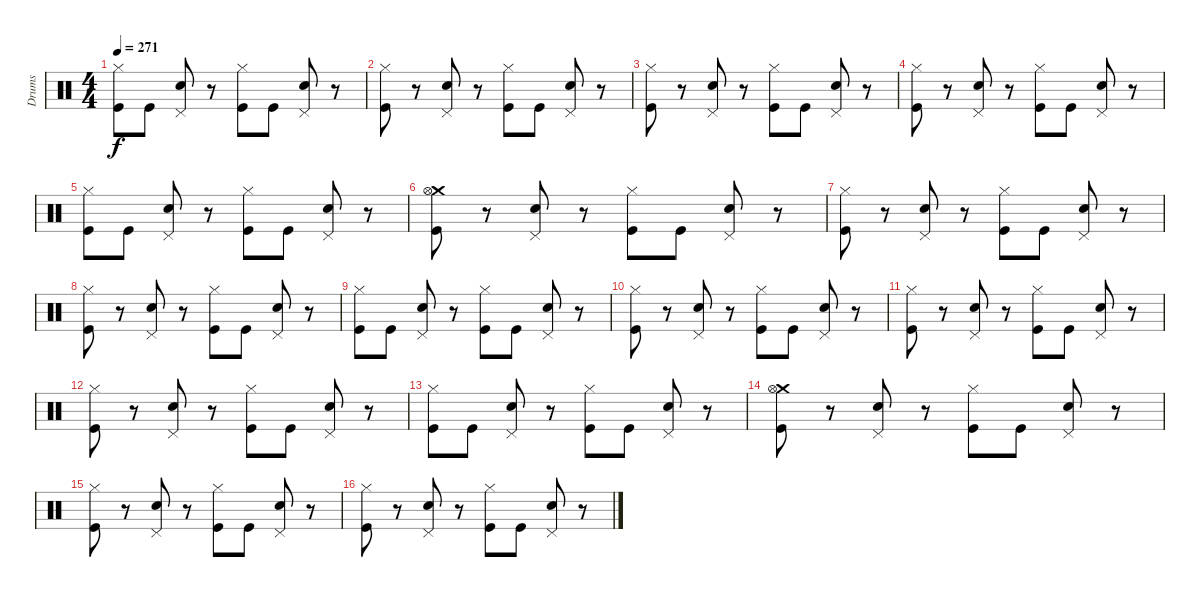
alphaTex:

\track ("Drums" "Drums") {instrument percussion}
\staff {score}
\articulation defaults
\ts (4 4)
\tempo 271
\clef neutral
\ks c
("Hi-Hat (closed)" "Kick (hit)").8{dy f} "Kick (hit)".8 ("Pedal Hi-Hat (hit)" "Electric Snare (hit)").8 r.8 ("Hi-Hat (closed)" "Kick (hit)").8 "Kick (hit)".8 ("Pedal Hi-Hat (hit)" "Electric Snare (hit)").8 r.8 |
("Hi-Hat (closed)" "Kick (hit)").8 r.8 ("Pedal Hi-Hat (hit)" "Electric Snare (hit)").8 r.8 ("Hi-Hat (closed)" "Kick (hit)").8 "Kick (hit)".8 ("Pedal Hi-Hat (hit)" "Electric Snare (hit)").8 r.8 |
("Hi-Hat (closed)" "Kick (hit)").8 r.8 ("Pedal Hi-Hat (hit)" "Electric Snare (hit)").8 r.8 ("Hi-Hat (closed)" "Kick (hit)").8 "Kick (hit)".8 ("Pedal Hi-Hat (hit)" "Electric Snare (hit)").8 r.8 |
("Hi-Hat (closed)" "Kick (hit)").8 r.8 ("Pedal Hi-Hat (hit)" "Electric Snare (hit)").8 r.8 ("Hi-Hat (closed)" "Kick (hit)").8 "Kick (hit)".8 ("Pedal Hi-Hat (hit)" "Electric Snare (hit)").8 r.8 |
("Hi-Hat (closed)" "Kick (hit)").8 "Kick (hit)".8 ("Pedal Hi-Hat (hit)" "Electric Snare (hit)").8 r.8 ("Hi-Hat (closed)" "Kick (hit)").8 "Kick (hit)".8 ("Pedal Hi-Hat (hit)" "Electric Snare (hit)").8 r.8 |
("Crash medium (hit)" "Hi-Hat (open)" "Kick (hit)").8 r.8 ("Pedal Hi-Hat (hit)" "Electric Snare (hit)").8 r.8 ("Hi-Hat (closed)" "Kick (hit)").8 "Kick (hit)".8 ("Pedal Hi-Hat (hit)" "Electric Snare (hit)").8 r.8 |
("Hi-Hat (closed)" "Kick (hit)").8 r.8 ("Pedal Hi-Hat (hit)" "Electric Snare (hit)").8 r.8 ("Hi-Hat (closed)" "Kick (hit)").8 "Kick (hit)".8 ("Pedal Hi-Hat (hit)" "Electric Snare (hit)").8 r.8 |
("Hi-Hat (closed)" "Kick (hit)").8 r.8 ("Pedal Hi-Hat (hit)" "Electric Snare (hit)").8 r.8 ("Hi-Hat (closed)" "Kick (hit)").8 "Kick (hit)".8 ("Pedal Hi-Hat (hit)" "Electric Snare (hit)").8 r.8 |
("Hi-Hat (closed)" "Kick (hit)").8 "Kick (hit)".8 ("Pedal Hi-Hat (hit)" "Electric Snare (hit)").8 r.8 ("Hi-Hat (closed)" "Kick (hit)").8 "Kick (hit)".8 ("Pedal Hi-Hat (hit)" "Electric Snare (hit)").8 r.8 |
("Hi-Hat (closed)" "Kick (hit)").8 r.8 ("Pedal Hi-Hat (hit)" "Electric Snare (hit)").8 r.8 ("Hi-Hat (closed)" "Kick (hit)").8 "Kick (hit)".8 ("Pedal Hi-Hat (hit)" "Electric Snare (hit)").8 r.8 |
("Hi-Hat (closed)" "Kick (hit)").8 r.8 ("Pedal Hi-Hat (hit)" "Electric Snare (hit)").8 r.8 ("Hi-Hat (closed)" "Kick (hit)").8 "Kick (hit)".8 ("Pedal Hi-Hat (hit)" "Electric Snare (hit)").8 r.8 |
("Hi-Hat (closed)" "Kick (hit)").8 r.8 ("Pedal Hi-Hat (hit)" "Electric Snare (hit)").8 r.8 ("Hi-Hat (closed)" "Kick (hit)").8 "Kick (hit)".8 ("Pedal Hi-Hat (hit)" "Electric Snare (hit)").8 r.8 |
("Hi-Hat (closed)" "Kick (hit)").8 "Kick (hit)".8 ("Pedal Hi-Hat (hit)" "Electric Snare (hit)").8 r.8 ("Hi-Hat (closed)" "Kick (hit)").8 "Kick (hit)".8 ("Pedal Hi-Hat (hit)" "Electric Snare (hit)").8 r.8 |
("Crash medium (hit)" "Hi-Hat (open)" "Kick (hit)").8 r.8 ("Pedal Hi-Hat (hit)" "Electric Snare (hit)").8 r.8 ("Hi-Hat (closed)" "Kick (hit)").8 "Kick (hit)".8 ("Pedal Hi-Hat (hit)" "Electric Snare (hit)").8 r.8 |
("Hi-Hat (closed)" "Kick (hit)").8 r.8 ("Pedal Hi-Hat (hit)" "Electric Snare (hit)").8 r.8 ("Hi-Hat (closed)" "Kick (hit)").8 "Kick (hit)".8 ("Pedal Hi-Hat (hit)" "Electric Snare (hit)").8 r.8 |
("Hi-Hat (closed)" "Kick (hit)").8 r.8 ("Pedal Hi-Hat (hit)" "Electric Snare (hit)").8 r.8 ("Hi-Hat (closed)" "Kick (hit)").8 "Kick (hit)".8 ("Pedal Hi-Hat (hit)" "Electric Snare (hit)").8 r.8
